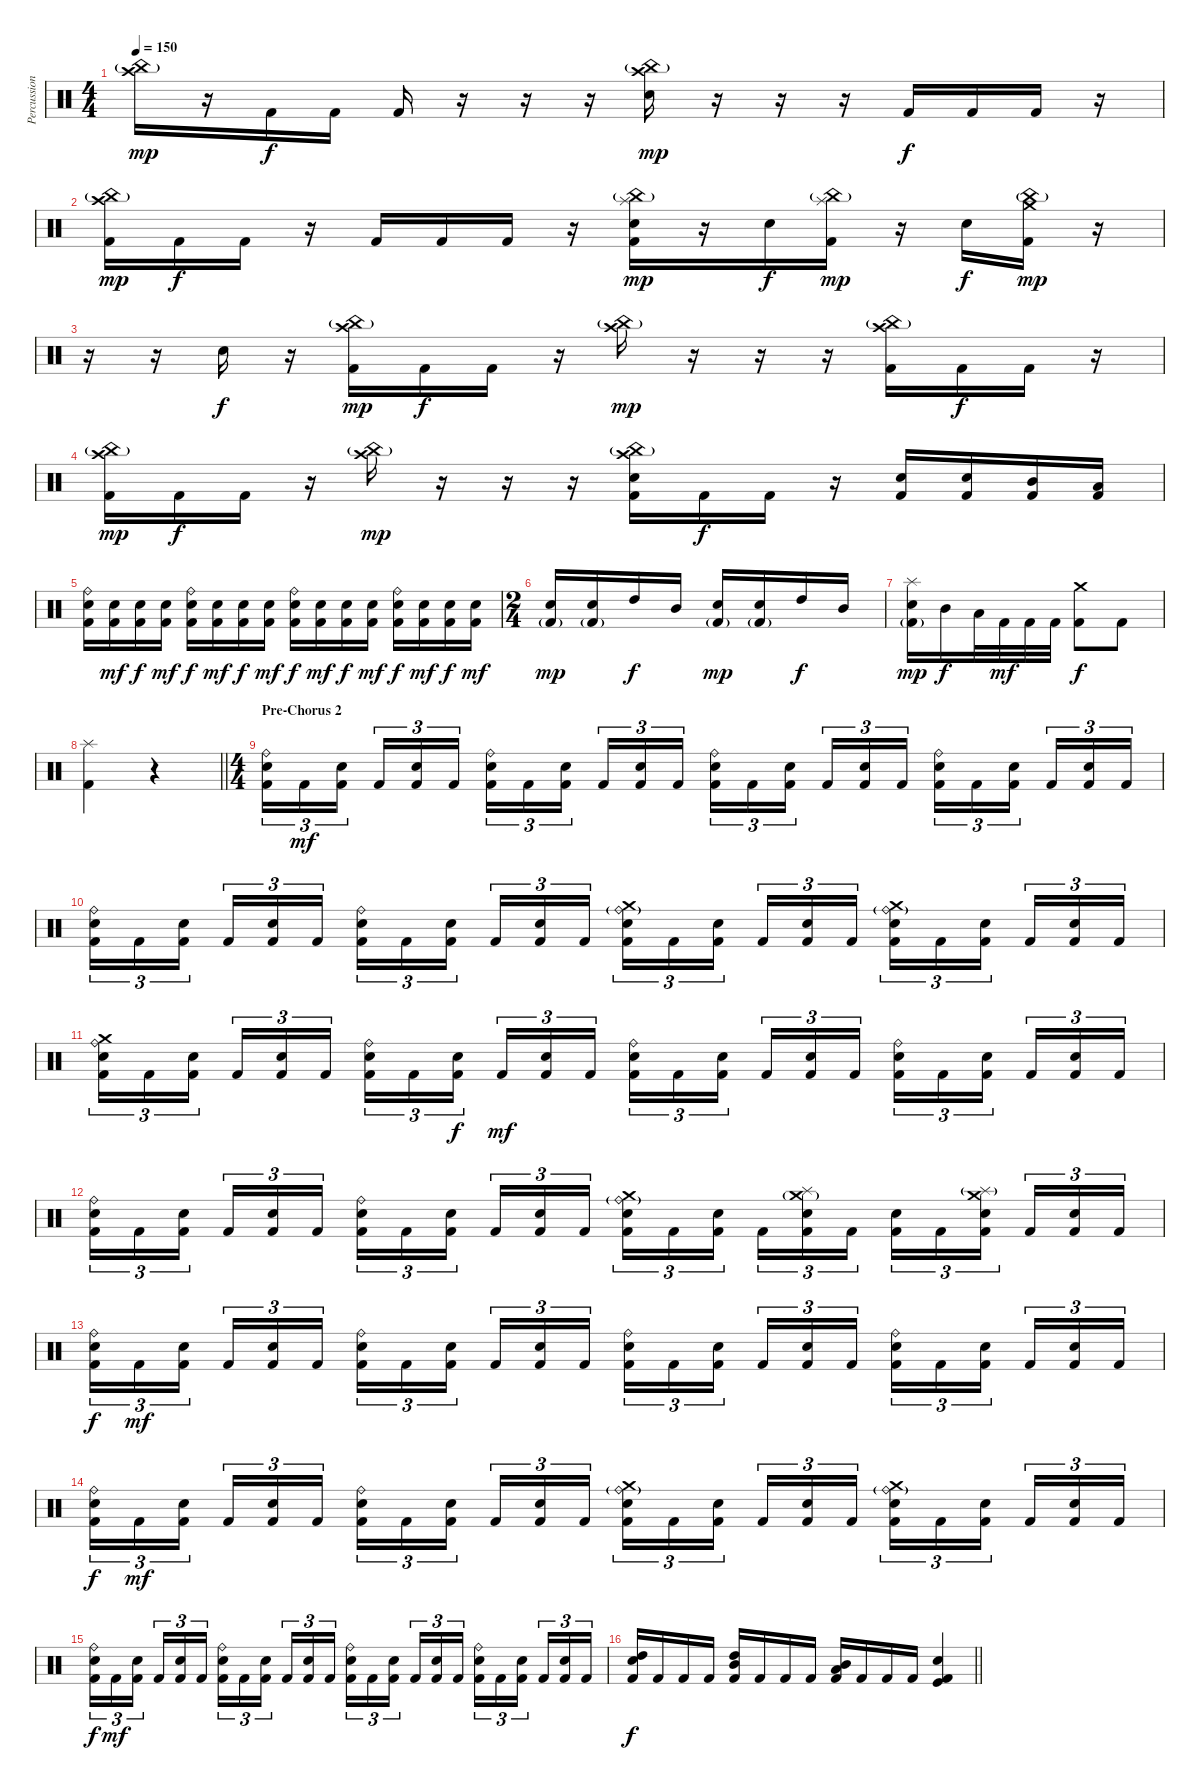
\track ("Percussion" "Percussion") {instrument percussion}
\staff {score}
\articulation defaults
\ts (4 4)
\tempo 150
\clef neutral
\ks c
("Crash high (hit)" "China (hit)"{g}).16{dy mp} r.16 "Kick (hit) 2".16{dy f} "Kick (hit) 2".16 "Kick (hit) 2".16 r.16 r.16 r.16 ("Crash high (hit)" "China (hit)"{g} "Snare (hit) 2").16{dy mp} r.16 r.16 r.16 "Kick (hit) 2".16{dy f} "Kick (hit) 2".16 "Kick (hit) 2".16 r.16 |
("Crash high (hit)" "China (hit)"{g} "Kick (hit) 2").16{dy mp} "Kick (hit) 2".16{dy f} "Kick (hit) 2".16 r.16 "Kick (hit) 2".16 "Kick (hit) 2".16 "Kick (hit) 2".16 r.16 ("Splash (hit)" "China (hit)"{g} "Snare (hit) 2" "Kick (hit) 2").16{dy mp} r.16 "Snare (hit) 2".16{dy f} ("Splash (hit)" "China (hit)"{g} "Kick (hit) 2").16{dy mp} r.16 "Snare (hit) 2".16{dy f} ("Crash medium (hit)" "China (hit)"{g} "Kick (hit) 2").16{dy mp} r.16 |
r.16 r.16 "Snare (hit) 2".16{dy f} r.16 ("Crash high (hit)" "China (hit)"{g} "Kick (hit) 2").16{dy mp} "Kick (hit) 2".16{dy f} "Kick (hit) 2".16 r.16 ("Crash high (hit)" "China (hit)"{g}).16{dy mp} r.16 r.16 r.16 ("Crash high (hit)" "China (hit)"{g} "Kick (hit) 2").16 "Kick (hit) 2".16{dy f} "Kick (hit) 2".16 r.16 |
("Crash high (hit)" "China (hit)"{g} "Kick (hit) 2").16{dy mp} "Kick (hit) 2".16{dy f} "Kick (hit) 2".16 r.16 ("Crash high (hit)" "China (hit)"{g}).16{dy mp} r.16 r.16 r.16 ("Crash high (hit)" "China (hit)"{g} "Snare (hit) 2" "Kick (hit) 2").16 "Kick (hit) 2".16{dy f} "Kick (hit) 2".16 r.16 ("Snare (hit) 2" "Kick (hit) 2").16 ("Snare (hit) 2" "Kick (hit) 2").16 ("Mid Tom (hit)" "Kick (hit) 2").16 ("Low Tom (hit)" "Kick (hit) 2").16 |
("Ride (bell)" "Snare (hit) 2" "Kick (hit) 2").16 ("Snare (hit) 2" "Kick (hit) 2").16{dy mf} ("Snare (hit) 2" "Kick (hit) 2").16{dy f} ("Snare (hit) 2" "Kick (hit) 2").16{dy mf} ("Ride (bell)" "Snare (hit) 2" "Kick (hit) 2").16{dy f} ("Snare (hit) 2" "Kick (hit) 2").16{dy mf} ("Snare (hit) 2" "Kick (hit) 2").16{dy f} ("Snare (hit) 2" "Kick (hit) 2").16{dy mf} ("Ride (bell)" "Snare (hit) 2" "Kick (hit) 2").16{dy f} ("Snare (hit) 2" "Kick (hit) 2").16{dy mf} ("Snare (hit) 2" "Kick (hit) 2").16{dy f} ("Snare (hit) 2" "Kick (hit) 2").16{dy mf} ("Ride (bell)" "Snare (hit) 2" "Kick (hit) 2").16{dy f} ("Snare (hit) 2" "Kick (hit) 2").16{dy mf} ("Snare (hit) 2" "Kick (hit) 2").16{dy f} ("Snare (hit) 2" "Kick (hit) 2").16{dy mf} |
\ts (2 4)
("Snare (hit) 2" "Kick (hit) 2"{g}).16{dy mp} ("Snare (hit) 2" "Kick (hit) 2"{g}).16 "High Tom (hit)".16{dy f} "Mid Tom (hit)".16 ("Snare (hit) 2" "Kick (hit) 2"{g}).16{dy mp} ("Snare (hit) 2" "Kick (hit) 2"{g}).16 "High Tom (hit)".16{dy f} "Mid Tom (hit)".16 |
("Splash (hit)" "Snare (hit) 2" "Kick (hit) 2"{g}).16{dy mp} "Mid Tom (hit)".16{dy f} "Low Tom (hit)".32 "Kick (hit) 2".32{dy mf} "Kick (hit) 2".32 "Kick (hit) 2".32 ("Crash medium (hit)" "Kick (hit) 2").8{dy f} "Kick (hit) 2".8 |
\barLineRight lightlight
("Splash (hit)" "Kick (hit) 2").4 r.4 |
\ts (4 4)
\section ("" "Pre-Chorus 2")
("Ride (bell)" "Snare (hit) 2" "Kick (hit) 2").16{tu (3 2)} "Kick (hit) 2".16{tu (3 2) dy mf} ("Snare (hit) 2" "Kick (hit) 2").16{tu (3 2) beam splitsecondary} "Kick (hit) 2".16{tu (3 2)} ("Snare (hit) 2" "Kick (hit) 2").16{tu (3 2)} "Kick (hit) 2".16{tu (3 2)} ("Ride (bell)" "Snare (hit) 2" "Kick (hit) 2").16{tu (3 2)} "Kick (hit) 2".16{tu (3 2)} ("Snare (hit) 2" "Kick (hit) 2").16{tu (3 2) beam splitsecondary} "Kick (hit) 2".16{tu (3 2)} ("Snare (hit) 2" "Kick (hit) 2").16{tu (3 2)} "Kick (hit) 2".16{tu (3 2)} ("Ride (bell)" "Snare (hit) 2" "Kick (hit) 2").16{tu (3 2)} "Kick (hit) 2".16{tu (3 2)} ("Snare (hit) 2" "Kick (hit) 2").16{tu (3 2) beam splitsecondary} "Kick (hit) 2".16{tu (3 2)} ("Snare (hit) 2" "Kick (hit) 2").16{tu (3 2)} "Kick (hit) 2".16{tu (3 2)} ("Ride (bell)" "Snare (hit) 2" "Kick (hit) 2").16{tu (3 2)} "Kick (hit) 2".16{tu (3 2)} ("Snare (hit) 2" "Kick (hit) 2").16{tu (3 2) beam splitsecondary} "Kick (hit) 2".16{tu (3 2)} ("Snare (hit) 2" "Kick (hit) 2").16{tu (3 2)} "Kick (hit) 2".16{tu (3 2)} |
("Ride (bell)" "Snare (hit) 2" "Kick (hit) 2").16{tu (3 2)} "Kick (hit) 2".16{tu (3 2)} ("Snare (hit) 2" "Kick (hit) 2").16{tu (3 2) beam splitsecondary} "Kick (hit) 2".16{tu (3 2)} ("Snare (hit) 2" "Kick (hit) 2").16{tu (3 2)} "Kick (hit) 2".16{tu (3 2)} ("Ride (bell)" "Snare (hit) 2" "Kick (hit) 2").16{tu (3 2)} "Kick (hit) 2".16{tu (3 2)} ("Snare (hit) 2" "Kick (hit) 2").16{tu (3 2) beam splitsecondary} "Kick (hit) 2".16{tu (3 2)} ("Snare (hit) 2" "Kick (hit) 2").16{tu (3 2)} "Kick (hit) 2".16{tu (3 2)} ("Ride (bell)"{g} "Crash medium (hit)" "Snare (hit) 2" "Kick (hit) 2").16{tu (3 2)} "Kick (hit) 2".16{tu (3 2)} ("Snare (hit) 2" "Kick (hit) 2").16{tu (3 2) beam splitsecondary} "Kick (hit) 2".16{tu (3 2)} ("Snare (hit) 2" "Kick (hit) 2").16{tu (3 2)} "Kick (hit) 2".16{tu (3 2)} ("Ride (bell)"{g} "Crash medium (hit)" "Snare (hit) 2" "Kick (hit) 2").16{tu (3 2)} "Kick (hit) 2".16{tu (3 2)} ("Snare (hit) 2" "Kick (hit) 2").16{tu (3 2) beam splitsecondary} "Kick (hit) 2".16{tu (3 2)} ("Snare (hit) 2" "Kick (hit) 2").16{tu (3 2)} "Kick (hit) 2".16{tu (3 2)} |
("Ride (bell)" "Crash medium (hit)" "Snare (hit) 2" "Kick (hit) 2").16{tu (3 2)} "Kick (hit) 2".16{tu (3 2)} ("Snare (hit) 2" "Kick (hit) 2").16{tu (3 2) beam splitsecondary} "Kick (hit) 2".16{tu (3 2)} ("Snare (hit) 2" "Kick (hit) 2").16{tu (3 2)} "Kick (hit) 2".16{tu (3 2)} ("Ride (bell)" "Snare (hit) 2" "Kick (hit) 2").16{tu (3 2)} "Kick (hit) 2".16{tu (3 2)} ("Snare (hit) 2" "Kick (hit) 2").16{tu (3 2) dy f beam splitsecondary} "Kick (hit) 2".16{tu (3 2) dy mf} ("Snare (hit) 2" "Kick (hit) 2").16{tu (3 2)} "Kick (hit) 2".16{tu (3 2)} ("Ride (bell)" "Snare (hit) 2" "Kick (hit) 2").16{tu (3 2)} "Kick (hit) 2".16{tu (3 2)} ("Snare (hit) 2" "Kick (hit) 2").16{tu (3 2) beam splitsecondary} "Kick (hit) 2".16{tu (3 2)} ("Snare (hit) 2" "Kick (hit) 2").16{tu (3 2)} "Kick (hit) 2".16{tu (3 2)} ("Ride (bell)" "Snare (hit) 2" "Kick (hit) 2").16{tu (3 2)} "Kick (hit) 2".16{tu (3 2)} ("Snare (hit) 2" "Kick (hit) 2").16{tu (3 2) beam splitsecondary} "Kick (hit) 2".16{tu (3 2)} ("Snare (hit) 2" "Kick (hit) 2").16{tu (3 2)} "Kick (hit) 2".16{tu (3 2)} |
("Ride (bell)" "Snare (hit) 2" "Kick (hit) 2").16{tu (3 2)} "Kick (hit) 2".16{tu (3 2)} ("Snare (hit) 2" "Kick (hit) 2").16{tu (3 2) beam splitsecondary} "Kick (hit) 2".16{tu (3 2)} ("Snare (hit) 2" "Kick (hit) 2").16{tu (3 2)} "Kick (hit) 2".16{tu (3 2)} ("Ride (bell)" "Snare (hit) 2" "Kick (hit) 2").16{tu (3 2)} "Kick (hit) 2".16{tu (3 2)} ("Snare (hit) 2" "Kick (hit) 2").16{tu (3 2) beam splitsecondary} "Kick (hit) 2".16{tu (3 2)} ("Snare (hit) 2" "Kick (hit) 2").16{tu (3 2)} "Kick (hit) 2".16{tu (3 2)} ("Ride (bell)"{g} "Crash medium (hit)" "Snare (hit) 2" "Kick (hit) 2").16{tu (3 2)} "Kick (hit) 2".16{tu (3 2)} ("Snare (hit) 2" "Kick (hit) 2").16{tu (3 2) beam splitsecondary} "Kick (hit) 2".16{tu (3 2)} ("Crash medium (hit)"{g} "Splash (hit)" "Snare (hit) 2" "Kick (hit) 2").16{tu (3 2)} "Kick (hit) 2".16{tu (3 2)} ("Snare (hit) 2" "Kick (hit) 2").16{tu (3 2)} "Kick (hit) 2".16{tu (3 2)} ("Splash (hit)"{g} "Crash medium (hit)" "Snare (hit) 2" "Kick (hit) 2").16{tu (3 2) beam splitsecondary} "Kick (hit) 2".16{tu (3 2)} ("Snare (hit) 2" "Kick (hit) 2").16{tu (3 2)} "Kick (hit) 2".16{tu (3 2)} |
("Ride (bell)" "Snare (hit) 2" "Kick (hit) 2").16{tu (3 2) dy f} "Kick (hit) 2".16{tu (3 2) dy mf} ("Snare (hit) 2" "Kick (hit) 2").16{tu (3 2) beam splitsecondary} "Kick (hit) 2".16{tu (3 2)} ("Snare (hit) 2" "Kick (hit) 2").16{tu (3 2)} "Kick (hit) 2".16{tu (3 2)} ("Ride (bell)" "Snare (hit) 2" "Kick (hit) 2").16{tu (3 2)} "Kick (hit) 2".16{tu (3 2)} ("Snare (hit) 2" "Kick (hit) 2").16{tu (3 2) beam splitsecondary} "Kick (hit) 2".16{tu (3 2)} ("Snare (hit) 2" "Kick (hit) 2").16{tu (3 2)} "Kick (hit) 2".16{tu (3 2)} ("Ride (bell)" "Snare (hit) 2" "Kick (hit) 2").16{tu (3 2)} "Kick (hit) 2".16{tu (3 2)} ("Snare (hit) 2" "Kick (hit) 2").16{tu (3 2) beam splitsecondary} "Kick (hit) 2".16{tu (3 2)} ("Snare (hit) 2" "Kick (hit) 2").16{tu (3 2)} "Kick (hit) 2".16{tu (3 2)} ("Ride (bell)" "Snare (hit) 2" "Kick (hit) 2").16{tu (3 2)} "Kick (hit) 2".16{tu (3 2)} ("Snare (hit) 2" "Kick (hit) 2").16{tu (3 2) beam splitsecondary} "Kick (hit) 2".16{tu (3 2)} ("Snare (hit) 2" "Kick (hit) 2").16{tu (3 2)} "Kick (hit) 2".16{tu (3 2)} |
("Ride (bell)" "Snare (hit) 2" "Kick (hit) 2").16{tu (3 2) dy f} "Kick (hit) 2".16{tu (3 2) dy mf} ("Snare (hit) 2" "Kick (hit) 2").16{tu (3 2) beam splitsecondary} "Kick (hit) 2".16{tu (3 2)} ("Snare (hit) 2" "Kick (hit) 2").16{tu (3 2)} "Kick (hit) 2".16{tu (3 2)} ("Ride (bell)" "Snare (hit) 2" "Kick (hit) 2").16{tu (3 2)} "Kick (hit) 2".16{tu (3 2)} ("Snare (hit) 2" "Kick (hit) 2").16{tu (3 2) beam splitsecondary} "Kick (hit) 2".16{tu (3 2)} ("Snare (hit) 2" "Kick (hit) 2").16{tu (3 2)} "Kick (hit) 2".16{tu (3 2)} ("Ride (bell)"{g} "Crash medium (hit)" "Snare (hit) 2" "Kick (hit) 2").16{tu (3 2)} "Kick (hit) 2".16{tu (3 2)} ("Snare (hit) 2" "Kick (hit) 2").16{tu (3 2) beam splitsecondary} "Kick (hit) 2".16{tu (3 2)} ("Snare (hit) 2" "Kick (hit) 2").16{tu (3 2)} "Kick (hit) 2".16{tu (3 2)} ("Ride (bell)"{g} "Crash medium (hit)" "Snare (hit) 2" "Kick (hit) 2").16{tu (3 2)} "Kick (hit) 2".16{tu (3 2)} ("Snare (hit) 2" "Kick (hit) 2").16{tu (3 2) beam splitsecondary} "Kick (hit) 2".16{tu (3 2)} ("Snare (hit) 2" "Kick (hit) 2").16{tu (3 2)} "Kick (hit) 2".16{tu (3 2)} |
("Ride (bell)" "Snare (hit) 2" "Kick (hit) 2").16{tu (3 2) dy f} "Kick (hit) 2".16{tu (3 2) dy mf} ("Snare (hit) 2" "Kick (hit) 2").16{tu (3 2) beam splitsecondary} "Kick (hit) 2".16{tu (3 2)} ("Snare (hit) 2" "Kick (hit) 2").16{tu (3 2)} "Kick (hit) 2".16{tu (3 2)} ("Ride (bell)" "Snare (hit) 2" "Kick (hit) 2").16{tu (3 2)} "Kick (hit) 2".16{tu (3 2)} ("Snare (hit) 2" "Kick (hit) 2").16{tu (3 2) beam splitsecondary} "Kick (hit) 2".16{tu (3 2)} ("Snare (hit) 2" "Kick (hit) 2").16{tu (3 2)} "Kick (hit) 2".16{tu (3 2)} ("Ride (bell)" "Snare (hit) 2" "Kick (hit) 2").16{tu (3 2)} "Kick (hit) 2".16{tu (3 2)} ("Snare (hit) 2" "Kick (hit) 2").16{tu (3 2) beam splitsecondary} "Kick (hit) 2".16{tu (3 2)} ("Snare (hit) 2" "Kick (hit) 2").16{tu (3 2)} "Kick (hit) 2".16{tu (3 2)} ("Ride (bell)" "Snare (hit) 2" "Kick (hit) 2").16{tu (3 2)} "Kick (hit) 2".16{tu (3 2)} ("Snare (hit) 2" "Kick (hit) 2").16{tu (3 2) beam splitsecondary} "Kick (hit) 2".16{tu (3 2)} ("Snare (hit) 2" "Kick (hit) 2").16{tu (3 2)} "Kick (hit) 2".16{tu (3 2)} |
\barLineRight lightlight
("High Tom (hit)" "Snare (hit) 2" "Kick (hit) 2").16{dy f} "Kick (hit) 2".16 "Kick (hit) 2".16 "Kick (hit) 2".16 ("High Tom (hit)" "Mid Tom (hit)" "Kick (hit) 2").16 "Kick (hit) 2".16 "Kick (hit) 2".16 "Kick (hit) 2".16 ("Mid Tom (hit)" "Low Tom (hit)" "Kick (hit) 2").16 "Kick (hit) 2".16 "Kick (hit) 2".16 "Kick (hit) 2".16 ("Kick (hit)" "Snare (hit) 2" "Kick (hit) 2").4
